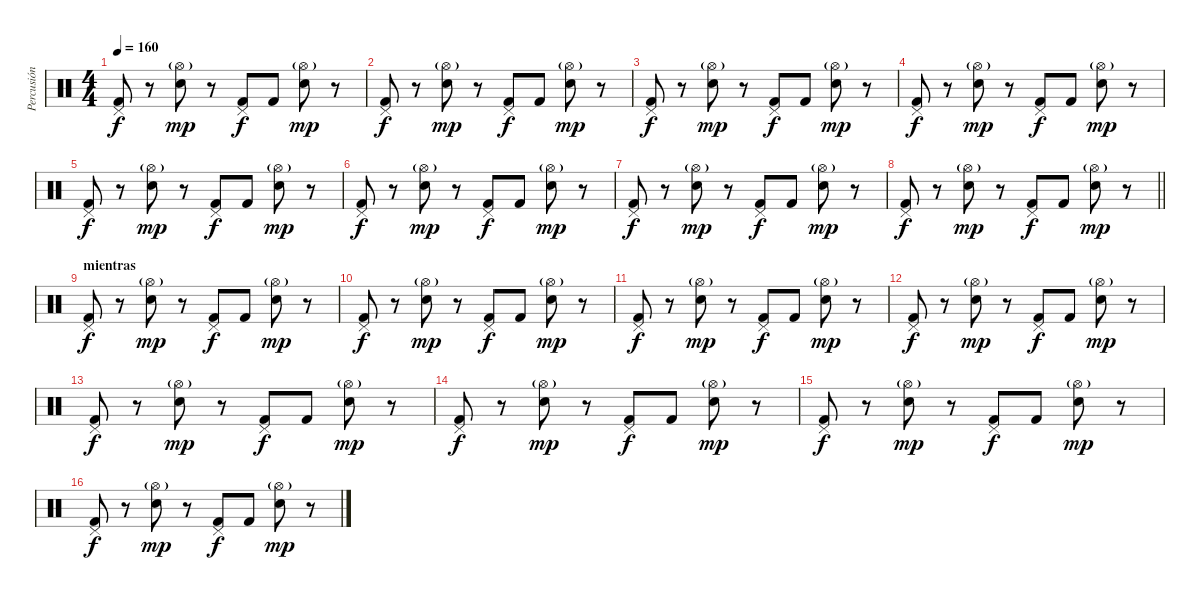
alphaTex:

\track ("Percusión" "Percusión") {instrument percussion}
\staff {score}
\articulation defaults
\ts (4 4)
\tempo 160
\clef neutral
\ks c
("Pedal Hi-Hat (hit)" "Kick (hit) 2").8{dy f} r.8 ("Hi-Hat (open)"{g} "Electric Snare (hit)").8{dy mp} r.8 ("Pedal Hi-Hat (hit)" "Kick (hit) 2").8{dy f} "Kick (hit) 2".8 ("Hi-Hat (open)"{g} "Electric Snare (hit)").8{dy mp} r.8 |
("Pedal Hi-Hat (hit)" "Kick (hit) 2").8{dy f} r.8 ("Hi-Hat (open)"{g} "Electric Snare (hit)").8{dy mp} r.8 ("Pedal Hi-Hat (hit)" "Kick (hit) 2").8{dy f} "Kick (hit) 2".8 ("Hi-Hat (open)"{g} "Electric Snare (hit)").8{dy mp} r.8 |
("Pedal Hi-Hat (hit)" "Kick (hit) 2").8{dy f} r.8 ("Hi-Hat (open)"{g} "Electric Snare (hit)").8{dy mp} r.8 ("Pedal Hi-Hat (hit)" "Kick (hit) 2").8{dy f} "Kick (hit) 2".8 ("Hi-Hat (open)"{g} "Electric Snare (hit)").8{dy mp} r.8 |
("Pedal Hi-Hat (hit)" "Kick (hit) 2").8{dy f} r.8 ("Hi-Hat (open)"{g} "Electric Snare (hit)").8{dy mp} r.8 ("Pedal Hi-Hat (hit)" "Kick (hit) 2").8{dy f} "Kick (hit) 2".8 ("Hi-Hat (open)"{g} "Electric Snare (hit)").8{dy mp} r.8 |
("Pedal Hi-Hat (hit)" "Kick (hit) 2").8{dy f} r.8 ("Hi-Hat (open)"{g} "Electric Snare (hit)").8{dy mp} r.8 ("Pedal Hi-Hat (hit)" "Kick (hit) 2").8{dy f} "Kick (hit) 2".8 ("Hi-Hat (open)"{g} "Electric Snare (hit)").8{dy mp} r.8 |
("Pedal Hi-Hat (hit)" "Kick (hit) 2").8{dy f} r.8 ("Hi-Hat (open)"{g} "Electric Snare (hit)").8{dy mp} r.8 ("Pedal Hi-Hat (hit)" "Kick (hit) 2").8{dy f} "Kick (hit) 2".8 ("Hi-Hat (open)"{g} "Electric Snare (hit)").8{dy mp} r.8 |
("Pedal Hi-Hat (hit)" "Kick (hit) 2").8{dy f} r.8 ("Hi-Hat (open)"{g} "Electric Snare (hit)").8{dy mp} r.8 ("Pedal Hi-Hat (hit)" "Kick (hit) 2").8{dy f} "Kick (hit) 2".8 ("Hi-Hat (open)"{g} "Electric Snare (hit)").8{dy mp} r.8 |
\barLineRight lightlight
("Pedal Hi-Hat (hit)" "Kick (hit) 2").8{dy f} r.8 ("Hi-Hat (open)"{g} "Electric Snare (hit)").8{dy mp} r.8 ("Pedal Hi-Hat (hit)" "Kick (hit) 2").8{dy f} "Kick (hit) 2".8 ("Hi-Hat (open)"{g} "Electric Snare (hit)").8{dy mp} r.8 |
\section ("" "mientras")
("Pedal Hi-Hat (hit)" "Kick (hit) 2").8{dy f} r.8 ("Hi-Hat (open)"{g} "Electric Snare (hit)").8{dy mp} r.8 ("Pedal Hi-Hat (hit)" "Kick (hit) 2").8{dy f} "Kick (hit) 2".8 ("Hi-Hat (open)"{g} "Electric Snare (hit)").8{dy mp} r.8 |
("Pedal Hi-Hat (hit)" "Kick (hit) 2").8{dy f} r.8 ("Hi-Hat (open)"{g} "Electric Snare (hit)").8{dy mp} r.8 ("Pedal Hi-Hat (hit)" "Kick (hit) 2").8{dy f} "Kick (hit) 2".8 ("Hi-Hat (open)"{g} "Electric Snare (hit)").8{dy mp} r.8 |
("Pedal Hi-Hat (hit)" "Kick (hit) 2").8{dy f} r.8 ("Hi-Hat (open)"{g} "Electric Snare (hit)").8{dy mp} r.8 ("Pedal Hi-Hat (hit)" "Kick (hit) 2").8{dy f} "Kick (hit) 2".8 ("Hi-Hat (open)"{g} "Electric Snare (hit)").8{dy mp} r.8 |
("Pedal Hi-Hat (hit)" "Kick (hit) 2").8{dy f} r.8 ("Hi-Hat (open)"{g} "Electric Snare (hit)").8{dy mp} r.8 ("Pedal Hi-Hat (hit)" "Kick (hit) 2").8{dy f} "Kick (hit) 2".8 ("Hi-Hat (open)"{g} "Electric Snare (hit)").8{dy mp} r.8 |
("Pedal Hi-Hat (hit)" "Kick (hit) 2").8{dy f} r.8 ("Hi-Hat (open)"{g} "Electric Snare (hit)").8{dy mp} r.8 ("Pedal Hi-Hat (hit)" "Kick (hit) 2").8{dy f} "Kick (hit) 2".8 ("Hi-Hat (open)"{g} "Electric Snare (hit)").8{dy mp} r.8 |
("Pedal Hi-Hat (hit)" "Kick (hit) 2").8{dy f} r.8 ("Hi-Hat (open)"{g} "Electric Snare (hit)").8{dy mp} r.8 ("Pedal Hi-Hat (hit)" "Kick (hit) 2").8{dy f} "Kick (hit) 2".8 ("Hi-Hat (open)"{g} "Electric Snare (hit)").8{dy mp} r.8 |
("Pedal Hi-Hat (hit)" "Kick (hit) 2").8{dy f} r.8 ("Hi-Hat (open)"{g} "Electric Snare (hit)").8{dy mp} r.8 ("Pedal Hi-Hat (hit)" "Kick (hit) 2").8{dy f} "Kick (hit) 2".8 ("Hi-Hat (open)"{g} "Electric Snare (hit)").8{dy mp} r.8 |
("Pedal Hi-Hat (hit)" "Kick (hit) 2").8{dy f} r.8 ("Hi-Hat (open)"{g} "Electric Snare (hit)").8{dy mp} r.8 ("Pedal Hi-Hat (hit)" "Kick (hit) 2").8{dy f} "Kick (hit) 2".8 ("Hi-Hat (open)"{g} "Electric Snare (hit)").8{dy mp} r.8
